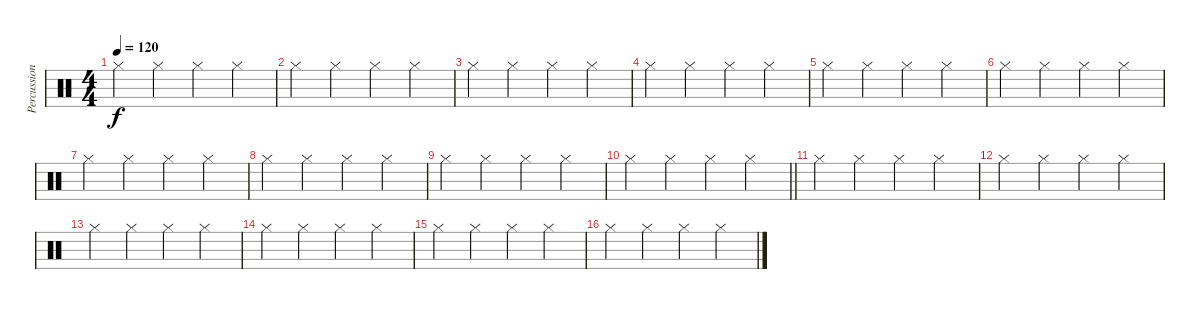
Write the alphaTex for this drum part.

\track ("Percussion" "Percussion") {instrument percussion}
\staff {score}
\articulation defaults
\ts (4 4)
\tempo 120
\clef neutral
\ks c "Hi-Hat (closed)".4{dy f} "Hi-Hat (closed)".4 "Hi-Hat (closed)".4 "Hi-Hat (closed)".4
|
"Hi-Hat (closed)".4 "Hi-Hat (closed)".4 "Hi-Hat (closed)".4 "Hi-Hat (closed)".4 |
"Hi-Hat (closed)".4 "Hi-Hat (closed)".4 "Hi-Hat (closed)".4 "Hi-Hat (closed)".4 |
"Hi-Hat (closed)".4 "Hi-Hat (closed)".4 "Hi-Hat (closed)".4 "Hi-Hat (closed)".4 |
"Hi-Hat (closed)".4 "Hi-Hat (closed)".4 "Hi-Hat (closed)".4 "Hi-Hat (closed)".4 |
"Hi-Hat (closed)".4 "Hi-Hat (closed)".4 "Hi-Hat (closed)".4 "Hi-Hat (closed)".4 |
"Hi-Hat (closed)".4 "Hi-Hat (closed)".4 "Hi-Hat (closed)".4 "Hi-Hat (closed)".4 |
"Hi-Hat (closed)".4 "Hi-Hat (closed)".4 "Hi-Hat (closed)".4 "Hi-Hat (closed)".4 |
"Hi-Hat (closed)".4 "Hi-Hat (closed)".4 "Hi-Hat (closed)".4 "Hi-Hat (closed)".4 |
\barLineRight lightlight "Hi-Hat (closed)".4 "Hi-Hat (closed)".4 "Hi-Hat (closed)".4 "Hi-Hat (closed)".4
|
"Hi-Hat (closed)".4 "Hi-Hat (closed)".4 "Hi-Hat (closed)".4 "Hi-Hat (closed)".4 |
"Hi-Hat (closed)".4 "Hi-Hat (closed)".4 "Hi-Hat (closed)".4 "Hi-Hat (closed)".4 |
"Hi-Hat (closed)".4 "Hi-Hat (closed)".4 "Hi-Hat (closed)".4 "Hi-Hat (closed)".4 |
"Hi-Hat (closed)".4 "Hi-Hat (closed)".4 "Hi-Hat (closed)".4 "Hi-Hat (closed)".4 |
"Hi-Hat (closed)".4 "Hi-Hat (closed)".4 "Hi-Hat (closed)".4 "Hi-Hat (closed)".4 |
"Hi-Hat (closed)".4 "Hi-Hat (closed)".4 "Hi-Hat (closed)".4 "Hi-Hat (closed)".4
